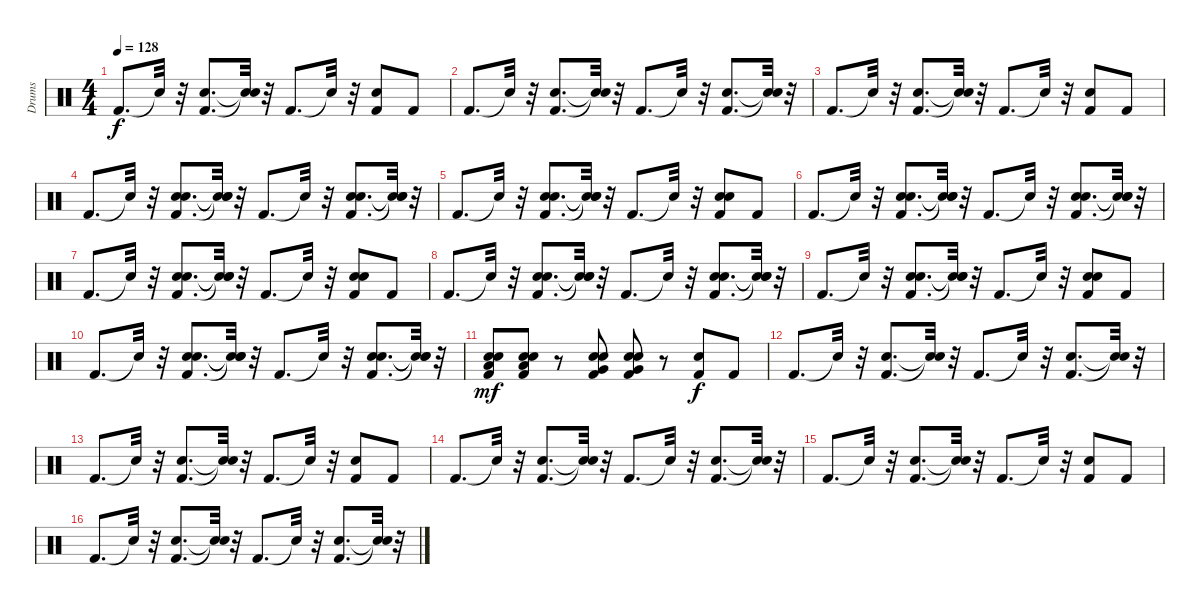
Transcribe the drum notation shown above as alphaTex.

\track ("Drums" "Drums") {instrument percussion}
\staff {score}
\articulation defaults
\ts (4 4)
\tempo 128
\clef neutral
\ks c "Kick (hit) 2".8{d dy f} "Snare (hit)"{t}.32
r.32 ("Kick (hit) 2" "Snare (hit) 2").8{d} ("Snare (hit)"{t} "Snare (hit)"{t}).32 r.32 "Kick (hit) 2".8{d} "Snare (hit)"{t}.32 r.32 ("Kick (hit) 2" "Snare (hit) 2").8 "Kick (hit) 2".8 |
"Kick (hit) 2".8{d} "Snare (hit)"{t}.32 r.32 ("Snare (hit) 2" "Kick (hit) 2").8{d} ("Snare (hit)"{t} "Snare (hit)"{t}).32 r.32 "Kick (hit) 2".8{d} "Snare (hit)"{t}.32 r.32 ("Kick (hit) 2" "Snare (hit) 2").8{d} ("Snare (hit)"{t} "Snare (hit)"{t}).32 r.32 |
"Kick (hit) 2".8{d} "Snare (hit)"{t}.32 r.32 ("Snare (hit) 2" "Kick (hit) 2").8{d} ("Snare (hit)"{t} "Snare (hit)"{t}).32 r.32 "Kick (hit) 2".8{d} "Snare (hit)"{t}.32 r.32 ("Snare (hit) 2" "Kick (hit) 2").8 "Kick (hit) 2".8 |
"Kick (hit) 2".8{d} "Snare (hit)"{t}.32 r.32 ("Kick (hit) 2" "Snare (hit) 2" "Hand Clap (hit)").8{d} ("Snare (hit)"{t} "Snare (hit)"{t} "Snare (hit)"{t}).32 r.32 "Kick (hit) 2".8{d} "Snare (hit)"{t}.32 r.32 ("Hand Clap (hit)" "Kick (hit) 2" "Snare (hit) 2").8{d} ("Snare (hit)"{t} "Snare (hit)"{t} "Snare (hit)"{t}).32 r.32 |
"Kick (hit) 2".8{d} "Snare (hit)"{t}.32 r.32 ("Kick (hit) 2" "Hand Clap (hit)" "Snare (hit) 2").8{d} ("Snare (hit)"{t} "Snare (hit)"{t} "Snare (hit)"{t}).32 r.32 "Kick (hit) 2".8{d} "Snare (hit)"{t}.32 r.32 ("Hand Clap (hit)" "Snare (hit) 2" "Kick (hit) 2").8 "Kick (hit) 2".8 |
"Kick (hit) 2".8{d} "Snare (hit)"{t}.32 r.32 ("Snare (hit) 2" "Kick (hit) 2" "Hand Clap (hit)").8{d} ("Snare (hit)"{t} "Snare (hit)"{t} "Snare (hit)"{t}).32 r.32 "Kick (hit) 2".8{d} "Snare (hit)"{t}.32 r.32 ("Kick (hit) 2" "Hand Clap (hit)" "Snare (hit) 2").8{d} ("Snare (hit)"{t} "Snare (hit)"{t} "Snare (hit)"{t}).32 r.32 |
"Kick (hit) 2".8{d} "Snare (hit)"{t}.32 r.32 ("Snare (hit) 2" "Kick (hit) 2" "Hand Clap (hit)").8{d} ("Snare (hit)"{t} "Snare (hit)"{t} "Snare (hit)"{t}).32 r.32 "Kick (hit) 2".8{d} "Snare (hit)"{t}.32 r.32 ("Hand Clap (hit)" "Snare (hit) 2" "Kick (hit) 2").8 "Kick (hit) 2".8 |
"Kick (hit) 2".8{d} "Snare (hit)"{t}.32 r.32 ("Kick (hit) 2" "Snare (hit) 2" "Hand Clap (hit)").8{d} ("Snare (hit)"{t} "Snare (hit)"{t} "Snare (hit)"{t}).32 r.32 "Kick (hit) 2".8{d} "Snare (hit)"{t}.32 r.32 ("Snare (hit) 2" "Hand Clap (hit)" "Kick (hit) 2").8{d} ("Snare (hit)"{t} "Snare (hit)"{t} "Snare (hit)"{t}).32 r.32 |
"Kick (hit) 2".8{d} "Snare (hit)"{t}.32 r.32 ("Kick (hit) 2" "Snare (hit) 2" "Hand Clap (hit)").8{d} ("Snare (hit)"{t} "Snare (hit)"{t} "Snare (hit)"{t}).32 r.32 "Kick (hit) 2".8{d} "Snare (hit)"{t}.32 r.32 ("Snare (hit) 2" "Kick (hit) 2" "Hand Clap (hit)").8 "Kick (hit) 2".8 |
"Kick (hit) 2".8{d} "Snare (hit)"{t}.32 r.32 ("Snare (hit) 2" "Kick (hit) 2" "Hand Clap (hit)").8{d} ("Snare (hit)"{t} "Snare (hit)"{t} "Snare (hit)"{t}).32 r.32 "Kick (hit) 2".8{d} "Snare (hit)"{t}.32 r.32 ("Hand Clap (hit)" "Kick (hit) 2" "Snare (hit) 2").8{d} ("Snare (hit)"{t} "Snare (hit)"{t} "Snare (hit)"{t}).32 r.32 |
("Low Tom (hit)" "Snare (hit) 2" "Kick (hit) 2" "Hand Clap (hit)").8{dy mf} ("Kick (hit) 2" "Low Tom (hit)" "Hand Clap (hit)" "Snare (hit) 2").8 r.8 ("Snare (hit) 2" "Kick (hit) 2" "Hand Clap (hit)" "Very Low Tom (hit)").8 ("Hand Clap (hit)" "Very Low Tom (hit)" "Snare (hit) 2" "Kick (hit) 2").8 r.8 ("Kick (hit) 2" "Snare (hit) 2").8{dy f} "Kick (hit) 2".8 |
"Kick (hit) 2".8{d} "Snare (hit)"{t}.32 r.32 ("Kick (hit) 2" "Snare (hit) 2").8{d} ("Snare (hit)"{t} "Snare (hit)"{t}).32 r.32 "Kick (hit) 2".8{d} "Snare (hit)"{t}.32 r.32 ("Snare (hit) 2" "Kick (hit) 2").8{d} ("Snare (hit)"{t} "Snare (hit)"{t}).32 r.32 |
"Kick (hit) 2".8{d} "Snare (hit)"{t}.32 r.32 ("Snare (hit) 2" "Kick (hit) 2").8{d} ("Snare (hit)"{t} "Snare (hit)"{t}).32 r.32 "Kick (hit) 2".8{d} "Snare (hit)"{t}.32 r.32 ("Kick (hit) 2" "Snare (hit) 2").8 "Kick (hit) 2".8 |
"Kick (hit) 2".8{d} "Snare (hit)"{t}.32 r.32 ("Snare (hit) 2" "Kick (hit) 2").8{d} ("Snare (hit)"{t} "Snare (hit)"{t}).32 r.32 "Kick (hit) 2".8{d} "Snare (hit)"{t}.32 r.32 ("Kick (hit) 2" "Snare (hit) 2").8{d} ("Snare (hit)"{t} "Snare (hit)"{t}).32 r.32 |
"Kick (hit) 2".8{d} "Snare (hit)"{t}.32 r.32 ("Snare (hit) 2" "Kick (hit) 2").8{d} ("Snare (hit)"{t} "Snare (hit)"{t}).32 r.32 "Kick (hit) 2".8{d} "Snare (hit)"{t}.32 r.32 ("Snare (hit) 2" "Kick (hit) 2").8 "Kick (hit) 2".8 |
"Kick (hit) 2".8{d} "Snare (hit)"{t}.32 r.32 ("Snare (hit) 2" "Kick (hit) 2").8{d} ("Snare (hit)"{t} "Snare (hit)"{t}).32 r.32 "Kick (hit) 2".8{d} "Snare (hit)"{t}.32 r.32 ("Snare (hit) 2" "Kick (hit) 2").8{d} ("Snare (hit)"{t} "Snare (hit)"{t}).32 r.32
